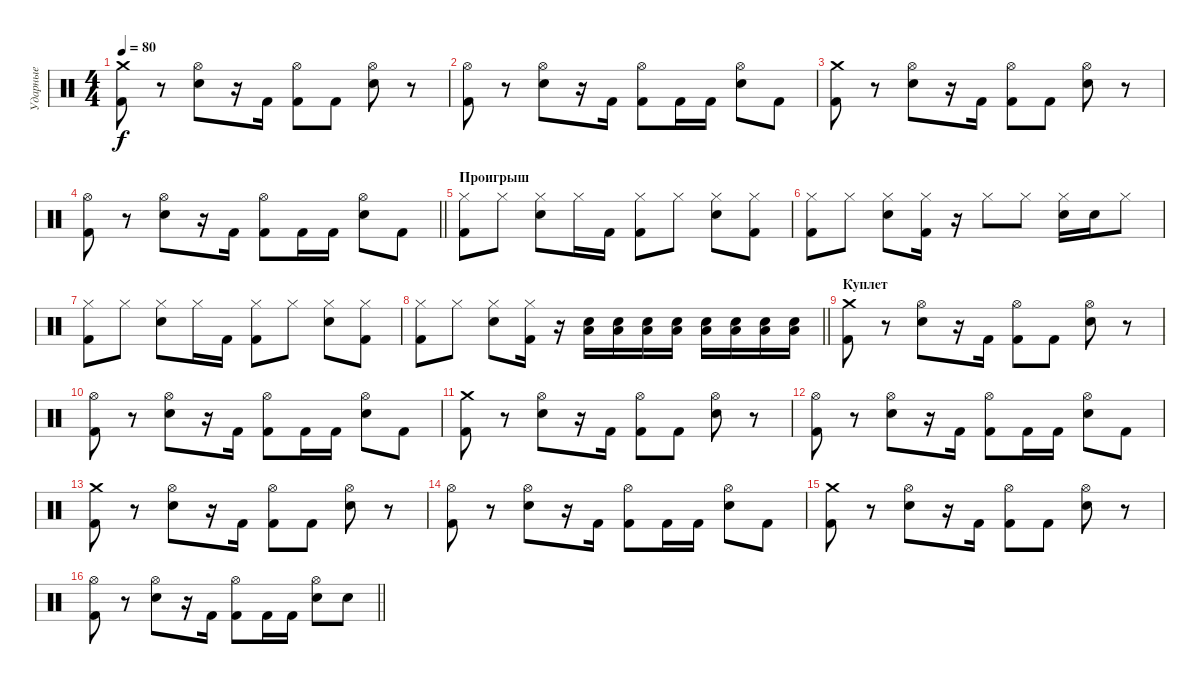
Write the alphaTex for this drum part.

\track ("Ударные" "Ударные") {instrument percussion}
\staff {score}
\articulation defaults
\ts (4 4)
\tempo 80
\clef neutral
\ks c
("Kick (hit) 2" "Crash medium (hit)").8{dy f} r.8 ("Electric Snare (hit)" "Hi-Hat (open)").8 r.16 "Kick (hit) 2".16 ("Kick (hit) 2" "Hi-Hat (open)").8 "Kick (hit) 2".8 ("Electric Snare (hit)" "Hi-Hat (open)").8 r.8 |
("Kick (hit) 2" "Hi-Hat (open)").8 r.8 ("Electric Snare (hit)" "Hi-Hat (open)").8 r.16 "Kick (hit) 2".16 ("Kick (hit) 2" "Hi-Hat (open)").8 "Kick (hit) 2".16 "Kick (hit) 2".16 ("Electric Snare (hit)" "Hi-Hat (open)").8 "Kick (hit) 2".8 |
("Kick (hit) 2" "Crash medium (hit)").8 r.8 ("Electric Snare (hit)" "Hi-Hat (open)").8 r.16 "Kick (hit) 2".16 ("Kick (hit) 2" "Hi-Hat (open)").8 "Kick (hit) 2".8 ("Electric Snare (hit)" "Hi-Hat (open)").8 r.8 |
\barLineRight lightlight
("Kick (hit) 2" "Hi-Hat (open)").8 r.8 ("Electric Snare (hit)" "Hi-Hat (open)").8 r.16 "Kick (hit) 2".16 ("Kick (hit) 2" "Hi-Hat (open)").8 "Kick (hit) 2".16 "Kick (hit) 2".16 ("Electric Snare (hit)" "Hi-Hat (open)").8 "Kick (hit) 2".8 |
\section ("" "Проигрыш")
("Hi-Hat (closed)" "Kick (hit) 2").8 "Hi-Hat (closed)".8 ("Electric Snare (hit)" "Hi-Hat (closed)").8 "Hi-Hat (closed)".16 "Kick (hit) 2".16 ("Kick (hit) 2" "Hi-Hat (closed)").8 "Hi-Hat (closed)".8 ("Electric Snare (hit)" "Hi-Hat (closed)").8 ("Kick (hit) 2" "Hi-Hat (closed)").8 |
("Hi-Hat (closed)" "Kick (hit) 2").8 "Hi-Hat (closed)".8 ("Electric Snare (hit)" "Hi-Hat (closed)").8 ("Hi-Hat (closed)" "Kick (hit) 2").16 r.16 "Hi-Hat (closed)".8 "Hi-Hat (closed)".8 ("Electric Snare (hit)" "Hi-Hat (closed)").16 "Electric Snare (hit)".16 "Hi-Hat (closed)".8 |
("Hi-Hat (closed)" "Kick (hit) 2").8 "Hi-Hat (closed)".8 ("Electric Snare (hit)" "Hi-Hat (closed)").8 "Hi-Hat (closed)".16 "Kick (hit) 2".16 ("Kick (hit) 2" "Hi-Hat (closed)").8 "Hi-Hat (closed)".8 ("Electric Snare (hit)" "Hi-Hat (closed)").8 ("Kick (hit) 2" "Hi-Hat (closed)").8 |
\barLineRight lightlight
("Hi-Hat (closed)" "Kick (hit) 2").8 "Hi-Hat (closed)".8 ("Electric Snare (hit)" "Hi-Hat (closed)").8 ("Hi-Hat (closed)" "Kick (hit) 2").16 r.16 ("Electric Snare (hit)" "Low Floor Tom (hit)").16 ("Electric Snare (hit)" "Low Floor Tom (hit)").16 ("Electric Snare (hit)" "Low Floor Tom (hit)").16 ("Electric Snare (hit)" "Low Floor Tom (hit)").16 ("Electric Snare (hit)" "Low Floor Tom (hit)").16 ("Electric Snare (hit)" "Low Floor Tom (hit)").16 ("Electric Snare (hit)" "Low Floor Tom (hit)").16 ("Electric Snare (hit)" "Low Floor Tom (hit)").16 |
\section ("" "Куплет")
("Kick (hit) 2" "Crash medium (hit)").8 r.8 ("Electric Snare (hit)" "Hi-Hat (open)").8 r.16 "Kick (hit) 2".16 ("Kick (hit) 2" "Hi-Hat (open)").8 "Kick (hit) 2".8 ("Electric Snare (hit)" "Hi-Hat (open)").8 r.8 |
("Kick (hit) 2" "Hi-Hat (open)").8 r.8 ("Electric Snare (hit)" "Hi-Hat (open)").8 r.16 "Kick (hit) 2".16 ("Kick (hit) 2" "Hi-Hat (open)").8 "Kick (hit) 2".16 "Kick (hit) 2".16 ("Electric Snare (hit)" "Hi-Hat (open)").8 "Kick (hit) 2".8 |
("Kick (hit) 2" "Crash medium (hit)").8 r.8 ("Electric Snare (hit)" "Hi-Hat (open)").8 r.16 "Kick (hit) 2".16 ("Kick (hit) 2" "Hi-Hat (open)").8 "Kick (hit) 2".8 ("Electric Snare (hit)" "Hi-Hat (open)").8 r.8 |
("Kick (hit) 2" "Hi-Hat (open)").8 r.8 ("Electric Snare (hit)" "Hi-Hat (open)").8 r.16 "Kick (hit) 2".16 ("Kick (hit) 2" "Hi-Hat (open)").8 "Kick (hit) 2".16 "Kick (hit) 2".16 ("Electric Snare (hit)" "Hi-Hat (open)").8 "Kick (hit) 2".8 |
("Kick (hit) 2" "Crash medium (hit)").8 r.8 ("Electric Snare (hit)" "Hi-Hat (open)").8 r.16 "Kick (hit) 2".16 ("Kick (hit) 2" "Hi-Hat (open)").8 "Kick (hit) 2".8 ("Electric Snare (hit)" "Hi-Hat (open)").8 r.8 |
("Kick (hit) 2" "Hi-Hat (open)").8 r.8 ("Electric Snare (hit)" "Hi-Hat (open)").8 r.16 "Kick (hit) 2".16 ("Kick (hit) 2" "Hi-Hat (open)").8 "Kick (hit) 2".16 "Kick (hit) 2".16 ("Electric Snare (hit)" "Hi-Hat (open)").8 "Kick (hit) 2".8 |
("Kick (hit) 2" "Crash medium (hit)").8 r.8 ("Electric Snare (hit)" "Hi-Hat (open)").8 r.16 "Kick (hit) 2".16 ("Kick (hit) 2" "Hi-Hat (open)").8 "Kick (hit) 2".8 ("Electric Snare (hit)" "Hi-Hat (open)").8 r.8 |
\barLineRight lightlight
("Kick (hit) 2" "Hi-Hat (open)").8 r.8 ("Electric Snare (hit)" "Hi-Hat (open)").8 r.16 "Kick (hit) 2".16 ("Kick (hit) 2" "Hi-Hat (open)").8 "Kick (hit) 2".16 "Kick (hit) 2".16 ("Electric Snare (hit)" "Hi-Hat (open)").8 "Electric Snare (hit)".8
